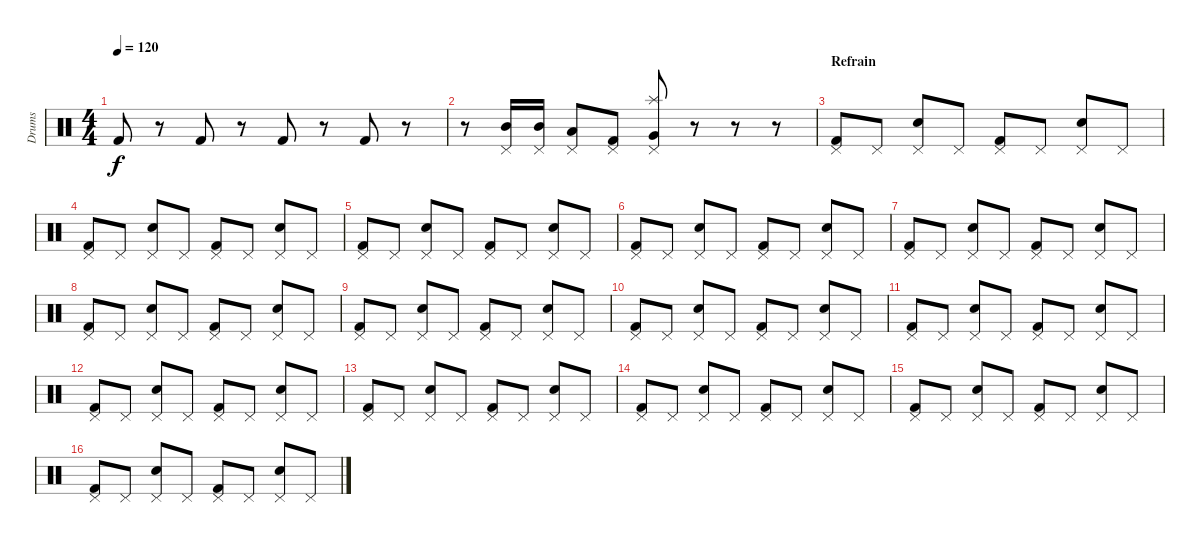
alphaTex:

\track ("Drums" "Drums") {instrument percussion}
\staff {score}
\articulation defaults
\ts (4 4)
\tempo 120
\clef neutral
\ks c "Kick (hit) 2".8{dy f}
r.8 "Kick (hit) 2".8 r.8 "Kick (hit) 2".8 r.8 "Kick (hit) 2".8 r.8 |
r.8 ("Pedal Hi-Hat (hit)" "Mid Tom (hit)").16 ("Pedal Hi-Hat (hit)" "Mid Tom (hit)").16 ("Pedal Hi-Hat (hit)" "Low Tom (hit)").8 ("Pedal Hi-Hat (hit)" "Kick (hit) 2").8 ("Splash (hit)" "Pedal Hi-Hat (hit)" "Very Low Tom (hit)").8 r.8 r.8 r.8 |
\section ("" "Refrain")
("Pedal Hi-Hat (hit)" "Kick (hit) 2").8 "Pedal Hi-Hat (hit)".8 ("Pedal Hi-Hat (hit)" "Snare (hit) 2").8 "Pedal Hi-Hat (hit)".8 ("Pedal Hi-Hat (hit)" "Kick (hit) 2").8 "Pedal Hi-Hat (hit)".8 ("Pedal Hi-Hat (hit)" "Snare (hit) 2").8 "Pedal Hi-Hat (hit)".8 |
("Pedal Hi-Hat (hit)" "Kick (hit) 2").8 "Pedal Hi-Hat (hit)".8 ("Pedal Hi-Hat (hit)" "Snare (hit) 2").8 "Pedal Hi-Hat (hit)".8 ("Pedal Hi-Hat (hit)" "Kick (hit) 2").8 "Pedal Hi-Hat (hit)".8 ("Pedal Hi-Hat (hit)" "Snare (hit) 2").8 "Pedal Hi-Hat (hit)".8 |
("Pedal Hi-Hat (hit)" "Kick (hit) 2").8 "Pedal Hi-Hat (hit)".8 ("Pedal Hi-Hat (hit)" "Snare (hit) 2").8 "Pedal Hi-Hat (hit)".8 ("Pedal Hi-Hat (hit)" "Kick (hit) 2").8 "Pedal Hi-Hat (hit)".8 ("Pedal Hi-Hat (hit)" "Snare (hit) 2").8 "Pedal Hi-Hat (hit)".8 |
("Pedal Hi-Hat (hit)" "Kick (hit) 2").8 "Pedal Hi-Hat (hit)".8 ("Pedal Hi-Hat (hit)" "Snare (hit) 2").8 "Pedal Hi-Hat (hit)".8 ("Pedal Hi-Hat (hit)" "Kick (hit) 2").8 "Pedal Hi-Hat (hit)".8 ("Pedal Hi-Hat (hit)" "Snare (hit) 2").8 "Pedal Hi-Hat (hit)".8 |
("Pedal Hi-Hat (hit)" "Kick (hit) 2").8 "Pedal Hi-Hat (hit)".8 ("Pedal Hi-Hat (hit)" "Snare (hit) 2").8 "Pedal Hi-Hat (hit)".8 ("Pedal Hi-Hat (hit)" "Kick (hit) 2").8 "Pedal Hi-Hat (hit)".8 ("Pedal Hi-Hat (hit)" "Snare (hit) 2").8 "Pedal Hi-Hat (hit)".8 |
("Pedal Hi-Hat (hit)" "Kick (hit) 2").8 "Pedal Hi-Hat (hit)".8 ("Pedal Hi-Hat (hit)" "Snare (hit) 2").8 "Pedal Hi-Hat (hit)".8 ("Pedal Hi-Hat (hit)" "Kick (hit) 2").8 "Pedal Hi-Hat (hit)".8 ("Pedal Hi-Hat (hit)" "Snare (hit) 2").8 "Pedal Hi-Hat (hit)".8 |
("Pedal Hi-Hat (hit)" "Kick (hit) 2").8 "Pedal Hi-Hat (hit)".8 ("Pedal Hi-Hat (hit)" "Snare (hit) 2").8 "Pedal Hi-Hat (hit)".8 ("Pedal Hi-Hat (hit)" "Kick (hit) 2").8 "Pedal Hi-Hat (hit)".8 ("Pedal Hi-Hat (hit)" "Snare (hit) 2").8 "Pedal Hi-Hat (hit)".8 |
("Pedal Hi-Hat (hit)" "Kick (hit) 2").8 "Pedal Hi-Hat (hit)".8 ("Pedal Hi-Hat (hit)" "Snare (hit) 2").8 "Pedal Hi-Hat (hit)".8 ("Pedal Hi-Hat (hit)" "Kick (hit) 2").8 "Pedal Hi-Hat (hit)".8 ("Pedal Hi-Hat (hit)" "Snare (hit) 2").8 "Pedal Hi-Hat (hit)".8 |
("Pedal Hi-Hat (hit)" "Kick (hit) 2").8 "Pedal Hi-Hat (hit)".8 ("Pedal Hi-Hat (hit)" "Snare (hit) 2").8 "Pedal Hi-Hat (hit)".8 ("Pedal Hi-Hat (hit)" "Kick (hit) 2").8 "Pedal Hi-Hat (hit)".8 ("Pedal Hi-Hat (hit)" "Snare (hit) 2").8 "Pedal Hi-Hat (hit)".8 |
("Pedal Hi-Hat (hit)" "Kick (hit) 2").8 "Pedal Hi-Hat (hit)".8 ("Pedal Hi-Hat (hit)" "Snare (hit) 2").8 "Pedal Hi-Hat (hit)".8 ("Pedal Hi-Hat (hit)" "Kick (hit) 2").8 "Pedal Hi-Hat (hit)".8 ("Pedal Hi-Hat (hit)" "Snare (hit) 2").8 "Pedal Hi-Hat (hit)".8 |
("Pedal Hi-Hat (hit)" "Kick (hit) 2").8 "Pedal Hi-Hat (hit)".8 ("Pedal Hi-Hat (hit)" "Snare (hit) 2").8 "Pedal Hi-Hat (hit)".8 ("Pedal Hi-Hat (hit)" "Kick (hit) 2").8 "Pedal Hi-Hat (hit)".8 ("Pedal Hi-Hat (hit)" "Snare (hit) 2").8 "Pedal Hi-Hat (hit)".8 |
("Pedal Hi-Hat (hit)" "Kick (hit) 2").8 "Pedal Hi-Hat (hit)".8 ("Pedal Hi-Hat (hit)" "Snare (hit) 2").8 "Pedal Hi-Hat (hit)".8 ("Pedal Hi-Hat (hit)" "Kick (hit) 2").8 "Pedal Hi-Hat (hit)".8 ("Pedal Hi-Hat (hit)" "Snare (hit) 2").8 "Pedal Hi-Hat (hit)".8 |
("Pedal Hi-Hat (hit)" "Kick (hit) 2").8 "Pedal Hi-Hat (hit)".8 ("Pedal Hi-Hat (hit)" "Snare (hit) 2").8 "Pedal Hi-Hat (hit)".8 ("Pedal Hi-Hat (hit)" "Kick (hit) 2").8 "Pedal Hi-Hat (hit)".8 ("Pedal Hi-Hat (hit)" "Snare (hit) 2").8 "Pedal Hi-Hat (hit)".8 |
("Pedal Hi-Hat (hit)" "Kick (hit) 2").8 "Pedal Hi-Hat (hit)".8 ("Pedal Hi-Hat (hit)" "Snare (hit) 2").8 "Pedal Hi-Hat (hit)".8 ("Pedal Hi-Hat (hit)" "Kick (hit) 2").8 "Pedal Hi-Hat (hit)".8 ("Pedal Hi-Hat (hit)" "Snare (hit) 2").8 "Pedal Hi-Hat (hit)".8
